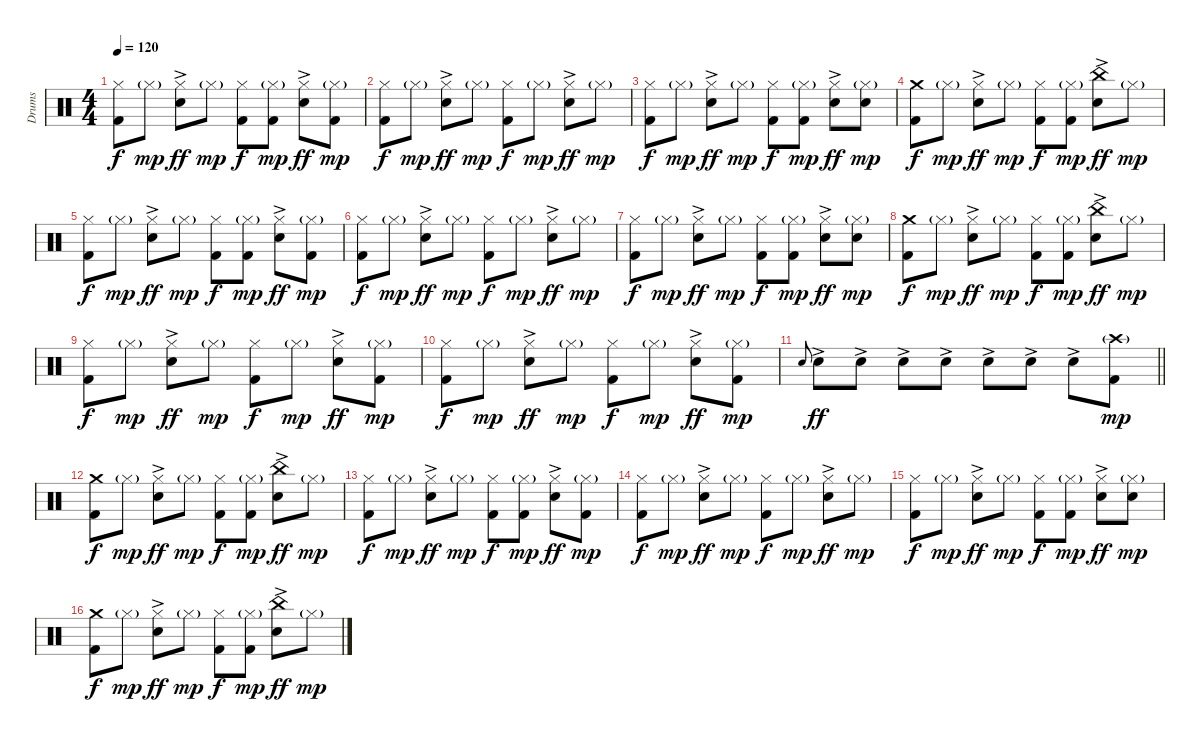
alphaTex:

\track ("Drums" "Drums") {instrument percussion}
\staff {score}
\articulation defaults
\ts (4 4)
\tempo 120
\clef neutral
\ks c
("Hi-Hat (closed)" "Kick (hit) 2").8{dy f} "Hi-Hat (closed)"{g}.8{dy mp} ("Hi-Hat (closed)" "Snare (hit) 2"{ac}).8{dy ff} "Hi-Hat (closed)"{g}.8{dy mp} ("Hi-Hat (closed)" "Kick (hit) 2").8{dy f} ("Hi-Hat (closed)"{g} "Kick (hit) 2").8{dy mp} ("Hi-Hat (closed)" "Snare (hit) 2"{ac}).8{dy ff} ("Hi-Hat (closed)"{g} "Kick (hit) 2").8{dy mp} |
("Hi-Hat (closed)" "Kick (hit) 2").8{dy f} "Hi-Hat (closed)"{g}.8{dy mp} ("Hi-Hat (closed)" "Snare (hit) 2"{ac}).8{dy ff} "Hi-Hat (closed)"{g}.8{dy mp} ("Hi-Hat (closed)" "Kick (hit) 2").8{dy f} "Hi-Hat (closed)"{g}.8{dy mp} ("Hi-Hat (closed)" "Snare (hit) 2"{ac}).8{dy ff} "Hi-Hat (closed)"{g}.8{dy mp} |
("Hi-Hat (closed)" "Kick (hit) 2").8{dy f} "Hi-Hat (closed)"{g}.8{dy mp} ("Hi-Hat (closed)" "Snare (hit) 2"{ac}).8{dy ff} "Hi-Hat (closed)"{g}.8{dy mp} ("Hi-Hat (closed)" "Kick (hit) 2").8{dy f} ("Hi-Hat (closed)"{g} "Kick (hit) 2").8{dy mp} ("Hi-Hat (closed)" "Snare (hit) 2"{ac}).8{dy ff} ("Hi-Hat (closed)"{g} "Snare (hit) 2").8{dy mp} |
("Crash medium (hit)" "Kick (hit) 2").8{dy f} "Hi-Hat (closed)"{g}.8{dy mp} ("Hi-Hat (closed)" "Snare (hit) 2"{ac}).8{dy ff} "Hi-Hat (closed)"{g}.8{dy mp} ("Hi-Hat (closed)" "Kick (hit) 2").8{dy f} ("Hi-Hat (closed)"{g} "Kick (hit) 2").8{dy mp} ("China (hit)" "Snare (hit) 2"{ac}).8{dy ff} "Hi-Hat (closed)"{g}.8{dy mp} |
("Hi-Hat (closed)" "Kick (hit) 2").8{dy f} "Hi-Hat (closed)"{g}.8{dy mp} ("Hi-Hat (closed)" "Snare (hit) 2"{ac}).8{dy ff} "Hi-Hat (closed)"{g}.8{dy mp} ("Hi-Hat (closed)" "Kick (hit) 2").8{dy f} ("Hi-Hat (closed)"{g} "Kick (hit) 2").8{dy mp} ("Hi-Hat (closed)" "Snare (hit) 2"{ac}).8{dy ff} ("Hi-Hat (closed)"{g} "Kick (hit) 2").8{dy mp} |
("Hi-Hat (closed)" "Kick (hit) 2").8{dy f} "Hi-Hat (closed)"{g}.8{dy mp} ("Hi-Hat (closed)" "Snare (hit) 2"{ac}).8{dy ff} "Hi-Hat (closed)"{g}.8{dy mp} ("Hi-Hat (closed)" "Kick (hit) 2").8{dy f} "Hi-Hat (closed)"{g}.8{dy mp} ("Hi-Hat (closed)" "Snare (hit) 2"{ac}).8{dy ff} "Hi-Hat (closed)"{g}.8{dy mp} |
("Hi-Hat (closed)" "Kick (hit) 2").8{dy f} "Hi-Hat (closed)"{g}.8{dy mp} ("Hi-Hat (closed)" "Snare (hit) 2"{ac}).8{dy ff} "Hi-Hat (closed)"{g}.8{dy mp} ("Hi-Hat (closed)" "Kick (hit) 2").8{dy f} ("Hi-Hat (closed)"{g} "Kick (hit) 2").8{dy mp} ("Hi-Hat (closed)" "Snare (hit) 2"{ac}).8{dy ff} ("Hi-Hat (closed)"{g} "Snare (hit) 2").8{dy mp} |
("Crash medium (hit)" "Kick (hit) 2").8{dy f} "Hi-Hat (closed)"{g}.8{dy mp} ("Hi-Hat (closed)" "Snare (hit) 2"{ac}).8{dy ff} "Hi-Hat (closed)"{g}.8{dy mp} ("Hi-Hat (closed)" "Kick (hit) 2").8{dy f} ("Hi-Hat (closed)"{g} "Kick (hit) 2").8{dy mp} ("China (hit)" "Snare (hit) 2"{ac}).8{dy ff} "Hi-Hat (closed)"{g}.8{dy mp} |
("Hi-Hat (closed)" "Kick (hit) 2").8{dy f} "Hi-Hat (closed)"{g}.8{dy mp} ("Hi-Hat (closed)" "Snare (hit) 2"{ac}).8{dy ff} "Hi-Hat (closed)"{g}.8{dy mp} ("Hi-Hat (closed)" "Kick (hit) 2").8{dy f} "Hi-Hat (closed)"{g}.8{dy mp} ("Hi-Hat (closed)" "Snare (hit) 2"{ac}).8{dy ff} ("Hi-Hat (closed)"{g} "Kick (hit) 2").8{dy mp} |
("Hi-Hat (closed)" "Kick (hit) 2").8{dy f} "Hi-Hat (closed)"{g}.8{dy mp} ("Hi-Hat (closed)" "Snare (hit) 2"{ac}).8{dy ff} "Hi-Hat (closed)"{g}.8{dy mp} ("Hi-Hat (closed)" "Kick (hit) 2").8{dy f} "Hi-Hat (closed)"{g}.8{dy mp} ("Hi-Hat (closed)" "Snare (hit) 2"{ac}).8{dy ff} ("Hi-Hat (closed)"{g} "Kick (hit) 2").8{dy mp} |
\barLineRight lightlight "Snare (hit) 2".8{gr onbeat} "Snare (hit) 2"{ac}.8{dy ff} "Snare (hit) 2"{ac}.8 "Snare (hit) 2"{ac}.8 "Snare (hit) 2"{ac}.8 "Snare (hit) 2"{ac}.8 "Snare (hit) 2"{ac}.8 "Snare (hit) 2"{ac}.8
("Crash high (hit)"{g} "Kick (hit) 2").8{dy mp} |
("Crash medium (hit)" "Kick (hit) 2").8{dy f volume 10} "Hi-Hat (closed)"{g}.8{dy mp} ("Hi-Hat (closed)" "Snare (hit) 2"{ac}).8{dy ff} "Hi-Hat (closed)"{g}.8{dy mp} ("Hi-Hat (closed)" "Kick (hit) 2").8{dy f} ("Hi-Hat (closed)"{g} "Kick (hit) 2").8{dy mp} ("China (hit)" "Snare (hit) 2"{ac}).8{dy ff} "Hi-Hat (closed)"{g}.8{dy mp} |
("Hi-Hat (closed)" "Kick (hit) 2").8{dy f} "Hi-Hat (closed)"{g}.8{dy mp} ("Hi-Hat (closed)" "Snare (hit) 2"{ac}).8{dy ff} "Hi-Hat (closed)"{g}.8{dy mp} ("Hi-Hat (closed)" "Kick (hit) 2").8{dy f} ("Hi-Hat (closed)"{g} "Kick (hit) 2").8{dy mp} ("Hi-Hat (closed)" "Snare (hit) 2"{ac}).8{dy ff} ("Hi-Hat (closed)"{g} "Kick (hit) 2").8{dy mp} |
("Hi-Hat (closed)" "Kick (hit) 2").8{dy f} "Hi-Hat (closed)"{g}.8{dy mp} ("Hi-Hat (closed)" "Snare (hit) 2"{ac}).8{dy ff} "Hi-Hat (closed)"{g}.8{dy mp} ("Hi-Hat (closed)" "Kick (hit) 2").8{dy f} "Hi-Hat (closed)"{g}.8{dy mp} ("Hi-Hat (closed)" "Snare (hit) 2"{ac}).8{dy ff} "Hi-Hat (closed)"{g}.8{dy mp} |
("Hi-Hat (closed)" "Kick (hit) 2").8{dy f} "Hi-Hat (closed)"{g}.8{dy mp} ("Hi-Hat (closed)" "Snare (hit) 2"{ac}).8{dy ff} "Hi-Hat (closed)"{g}.8{dy mp} ("Hi-Hat (closed)" "Kick (hit) 2").8{dy f} ("Hi-Hat (closed)"{g} "Kick (hit) 2").8{dy mp} ("Hi-Hat (closed)" "Snare (hit) 2"{ac}).8{dy ff} ("Hi-Hat (closed)"{g} "Snare (hit) 2").8{dy mp} |
("Crash medium (hit)" "Kick (hit) 2").8{dy f volume 5} "Hi-Hat (closed)"{g}.8{dy mp} ("Hi-Hat (closed)" "Snare (hit) 2"{ac}).8{dy ff} "Hi-Hat (closed)"{g}.8{dy mp} ("Hi-Hat (closed)" "Kick (hit) 2").8{dy f} ("Hi-Hat (closed)"{g} "Kick (hit) 2").8{dy mp} ("China (hit)" "Snare (hit) 2"{ac}).8{dy ff} "Hi-Hat (closed)"{g}.8{dy mp}
